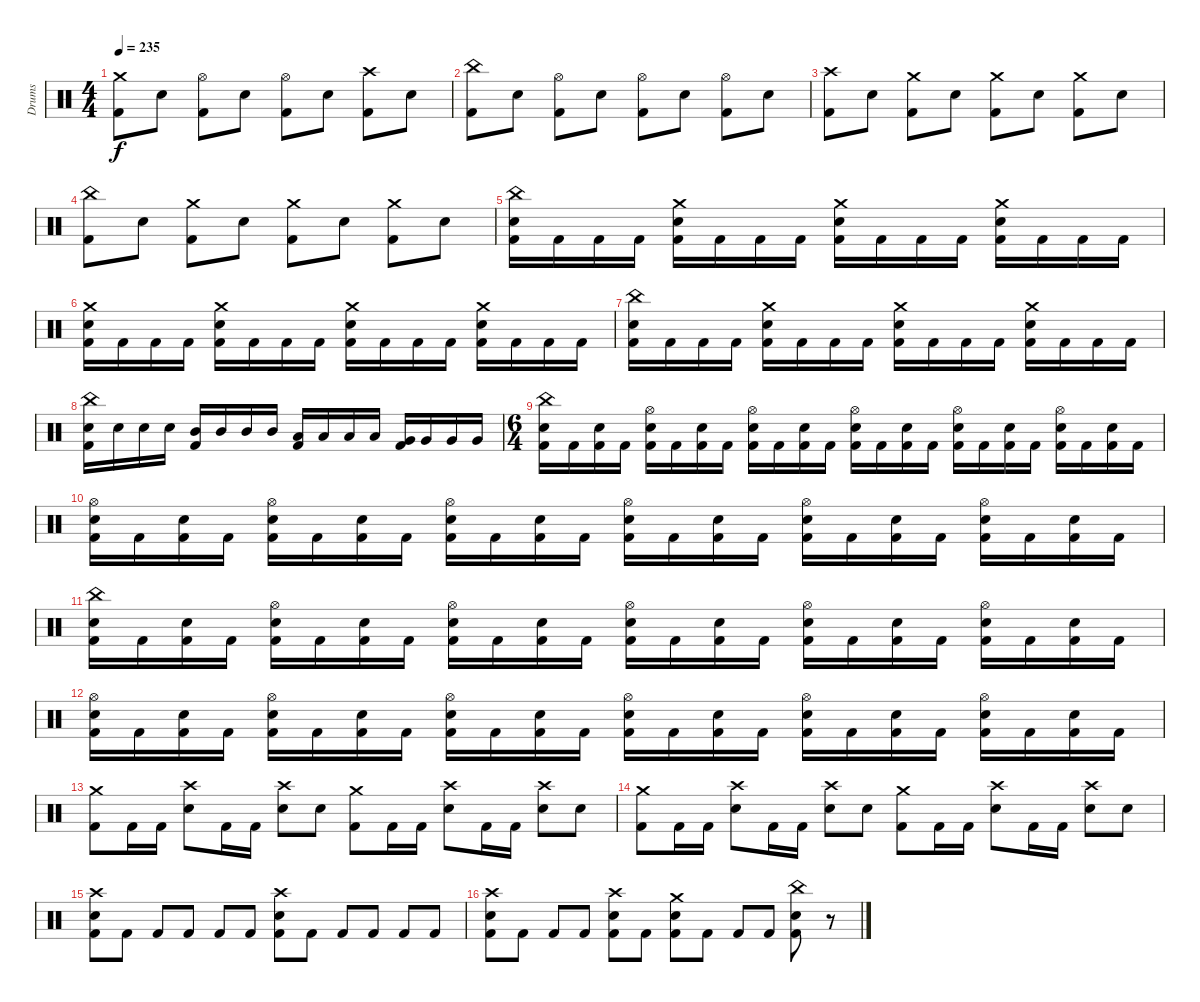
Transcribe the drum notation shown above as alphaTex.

\track ("Drums" "Drums") {instrument percussion}
\staff {score}
\articulation defaults
\ts (4 4)
\tempo 235
\clef neutral
\ks c
("Crash medium (hit)" "Kick (hit) 2").8{dy f} "Electric Snare (hit)".8 ("Hi-Hat (open)" "Kick (hit) 2").8 "Electric Snare (hit)".8 ("Hi-Hat (open)" "Kick (hit) 2").8 "Electric Snare (hit)".8 ("Crash high (hit)" "Kick (hit) 2").8 "Electric Snare (hit)".8 |
("China (hit)" "Kick (hit) 2").8 "Electric Snare (hit)".8 ("Hi-Hat (open)" "Kick (hit) 2").8 "Electric Snare (hit)".8 ("Hi-Hat (open)" "Kick (hit) 2").8 "Electric Snare (hit)".8 ("Hi-Hat (open)" "Kick (hit) 2").8 "Electric Snare (hit)".8 |
("Crash high (hit)" "Kick (hit) 2").8 "Electric Snare (hit)".8 ("Crash medium (hit)" "Kick (hit) 2").8 "Electric Snare (hit)".8 ("Crash medium (hit)" "Kick (hit) 2").8 "Electric Snare (hit)".8 ("Crash medium (hit)" "Kick (hit) 2").8 "Electric Snare (hit)".8 |
("China (hit)" "Kick (hit) 2").8 "Electric Snare (hit)".8 ("Crash medium (hit)" "Kick (hit) 2").8 "Electric Snare (hit)".8 ("Crash medium (hit)" "Kick (hit) 2").8 "Electric Snare (hit)".8 ("Crash medium (hit)" "Kick (hit) 2").8 "Electric Snare (hit)".8 |
("China (hit)" "Electric Snare (hit)" "Kick (hit) 2").16 "Kick (hit) 2".16 "Kick (hit) 2".16 "Kick (hit) 2".16 ("Crash medium (hit)" "Electric Snare (hit)" "Kick (hit) 2").16 "Kick (hit) 2".16 "Kick (hit) 2".16 "Kick (hit) 2".16 ("Crash medium (hit)" "Electric Snare (hit)" "Kick (hit) 2").16 "Kick (hit) 2".16 "Kick (hit) 2".16 "Kick (hit) 2".16 ("Crash medium (hit)" "Electric Snare (hit)" "Kick (hit) 2").16 "Kick (hit) 2".16 "Kick (hit) 2".16 "Kick (hit) 2".16 |
("Crash medium (hit)" "Electric Snare (hit)" "Kick (hit) 2").16 "Kick (hit) 2".16 "Kick (hit) 2".16 "Kick (hit) 2".16 ("Crash medium (hit)" "Electric Snare (hit)" "Kick (hit) 2").16 "Kick (hit) 2".16 "Kick (hit) 2".16 "Kick (hit) 2".16 ("Crash medium (hit)" "Electric Snare (hit)" "Kick (hit) 2").16 "Kick (hit) 2".16 "Kick (hit) 2".16 "Kick (hit) 2".16 ("Crash medium (hit)" "Electric Snare (hit)" "Kick (hit) 2").16 "Kick (hit) 2".16 "Kick (hit) 2".16 "Kick (hit) 2".16 |
("China (hit)" "Electric Snare (hit)" "Kick (hit) 2").16 "Kick (hit) 2".16 "Kick (hit) 2".16 "Kick (hit) 2".16 ("Crash medium (hit)" "Electric Snare (hit)" "Kick (hit) 2").16 "Kick (hit) 2".16 "Kick (hit) 2".16 "Kick (hit) 2".16 ("Crash medium (hit)" "Electric Snare (hit)" "Kick (hit) 2").16 "Kick (hit) 2".16 "Kick (hit) 2".16 "Kick (hit) 2".16 ("Crash medium (hit)" "Electric Snare (hit)" "Kick (hit) 2").16 "Kick (hit) 2".16 "Kick (hit) 2".16 "Kick (hit) 2".16 |
("China (hit)" "Electric Snare (hit)" "Kick (hit) 2").16 "Electric Snare (hit)".16 "Electric Snare (hit)".16 "Electric Snare (hit)".16 ("Mid Tom (hit)" "Kick (hit) 2").16 "Mid Tom (hit)".16 "Mid Tom (hit)".16 "Mid Tom (hit)".16 ("Low Tom (hit)" "Kick (hit) 2").16 "Low Tom (hit)".16 "Low Tom (hit)".16 "Low Tom (hit)".16 ("Very Low Tom (hit)" "Kick (hit) 2").16 "Very Low Tom (hit)".16 "Very Low Tom (hit)".16 "Very Low Tom (hit)".16 |
\ts (6 4)
("China (hit)" "Electric Snare (hit)" "Kick (hit) 2").16 "Kick (hit) 2".16 ("Electric Snare (hit)" "Kick (hit) 2").16 "Kick (hit) 2".16 ("Hi-Hat (open)" "Electric Snare (hit)" "Kick (hit) 2").16 "Kick (hit) 2".16 ("Electric Snare (hit)" "Kick (hit) 2").16 "Kick (hit) 2".16 ("Hi-Hat (open)" "Electric Snare (hit)" "Kick (hit) 2").16 "Kick (hit) 2".16 ("Electric Snare (hit)" "Kick (hit) 2").16 "Kick (hit) 2".16 ("Hi-Hat (open)" "Electric Snare (hit)" "Kick (hit) 2").16 "Kick (hit) 2".16 ("Electric Snare (hit)" "Kick (hit) 2").16 "Kick (hit) 2".16 ("Hi-Hat (open)" "Electric Snare (hit)" "Kick (hit) 2").16 "Kick (hit) 2".16 ("Electric Snare (hit)" "Kick (hit) 2").16 "Kick (hit) 2".16 ("Hi-Hat (open)" "Electric Snare (hit)" "Kick (hit) 2").16 "Kick (hit) 2".16 ("Electric Snare (hit)" "Kick (hit) 2").16 "Kick (hit) 2".16 |
("Hi-Hat (open)" "Electric Snare (hit)" "Kick (hit) 2").16 "Kick (hit) 2".16 ("Electric Snare (hit)" "Kick (hit) 2").16 "Kick (hit) 2".16 ("Hi-Hat (open)" "Electric Snare (hit)" "Kick (hit) 2").16 "Kick (hit) 2".16 ("Electric Snare (hit)" "Kick (hit) 2").16 "Kick (hit) 2".16 ("Hi-Hat (open)" "Electric Snare (hit)" "Kick (hit) 2").16 "Kick (hit) 2".16 ("Electric Snare (hit)" "Kick (hit) 2").16 "Kick (hit) 2".16 ("Hi-Hat (open)" "Electric Snare (hit)" "Kick (hit) 2").16 "Kick (hit) 2".16 ("Electric Snare (hit)" "Kick (hit) 2").16 "Kick (hit) 2".16 ("Hi-Hat (open)" "Electric Snare (hit)" "Kick (hit) 2").16 "Kick (hit) 2".16 ("Electric Snare (hit)" "Kick (hit) 2").16 "Kick (hit) 2".16 ("Hi-Hat (open)" "Electric Snare (hit)" "Kick (hit) 2").16 "Kick (hit) 2".16 ("Electric Snare (hit)" "Kick (hit) 2").16 "Kick (hit) 2".16 |
("China (hit)" "Electric Snare (hit)" "Kick (hit) 2").16 "Kick (hit) 2".16 ("Electric Snare (hit)" "Kick (hit) 2").16 "Kick (hit) 2".16 ("Hi-Hat (open)" "Electric Snare (hit)" "Kick (hit) 2").16 "Kick (hit) 2".16 ("Electric Snare (hit)" "Kick (hit) 2").16 "Kick (hit) 2".16 ("Hi-Hat (open)" "Electric Snare (hit)" "Kick (hit) 2").16 "Kick (hit) 2".16 ("Electric Snare (hit)" "Kick (hit) 2").16 "Kick (hit) 2".16 ("Hi-Hat (open)" "Electric Snare (hit)" "Kick (hit) 2").16 "Kick (hit) 2".16 ("Electric Snare (hit)" "Kick (hit) 2").16 "Kick (hit) 2".16 ("Hi-Hat (open)" "Electric Snare (hit)" "Kick (hit) 2").16 "Kick (hit) 2".16 ("Electric Snare (hit)" "Kick (hit) 2").16 "Kick (hit) 2".16 ("Hi-Hat (open)" "Electric Snare (hit)" "Kick (hit) 2").16 "Kick (hit) 2".16 ("Electric Snare (hit)" "Kick (hit) 2").16 "Kick (hit) 2".16 |
("Hi-Hat (open)" "Electric Snare (hit)" "Kick (hit) 2").16 "Kick (hit) 2".16 ("Electric Snare (hit)" "Kick (hit) 2").16 "Kick (hit) 2".16 ("Hi-Hat (open)" "Electric Snare (hit)" "Kick (hit) 2").16 "Kick (hit) 2".16 ("Electric Snare (hit)" "Kick (hit) 2").16 "Kick (hit) 2".16 ("Hi-Hat (open)" "Electric Snare (hit)" "Kick (hit) 2").16 "Kick (hit) 2".16 ("Electric Snare (hit)" "Kick (hit) 2").16 "Kick (hit) 2".16 ("Hi-Hat (open)" "Electric Snare (hit)" "Kick (hit) 2").16 "Kick (hit) 2".16 ("Electric Snare (hit)" "Kick (hit) 2").16 "Kick (hit) 2".16 ("Hi-Hat (open)" "Electric Snare (hit)" "Kick (hit) 2").16 "Kick (hit) 2".16 ("Electric Snare (hit)" "Kick (hit) 2").16 "Kick (hit) 2".16 ("Hi-Hat (open)" "Electric Snare (hit)" "Kick (hit) 2").16 "Kick (hit) 2".16 ("Electric Snare (hit)" "Kick (hit) 2").16 "Kick (hit) 2".16 |
("Crash medium (hit)" "Kick (hit) 2").8 "Kick (hit) 2".16 "Kick (hit) 2".16 ("Crash high (hit)" "Electric Snare (hit)").8 "Kick (hit) 2".16 "Kick (hit) 2".16 ("Crash high (hit)" "Electric Snare (hit)").8 "Electric Snare (hit)".8 ("Crash medium (hit)" "Kick (hit) 2").8 "Kick (hit) 2".16 "Kick (hit) 2".16 ("Crash high (hit)" "Electric Snare (hit)").8 "Kick (hit) 2".16 "Kick (hit) 2".16 ("Crash high (hit)" "Electric Snare (hit)").8 "Electric Snare (hit)".8 |
("Crash medium (hit)" "Kick (hit) 2").8 "Kick (hit) 2".16 "Kick (hit) 2".16 ("Crash high (hit)" "Electric Snare (hit)").8 "Kick (hit) 2".16 "Kick (hit) 2".16 ("Crash high (hit)" "Electric Snare (hit)").8 "Electric Snare (hit)".8 ("Crash medium (hit)" "Kick (hit) 2").8 "Kick (hit) 2".16 "Kick (hit) 2".16 ("Crash high (hit)" "Electric Snare (hit)").8 "Kick (hit) 2".16 "Kick (hit) 2".16 ("Crash high (hit)" "Electric Snare (hit)").8 "Electric Snare (hit)".8 |
("Crash high (hit)" "Electric Snare (hit)" "Kick (hit) 2").8 "Kick (hit) 2".8 "Kick (hit) 2".8 "Kick (hit) 2".8 "Kick (hit) 2".8 "Kick (hit) 2".8 ("Crash high (hit)" "Electric Snare (hit)" "Kick (hit) 2").8 "Kick (hit) 2".8 "Kick (hit) 2".8 "Kick (hit) 2".8 "Kick (hit) 2".8 "Kick (hit) 2".8 |
("Crash high (hit)" "Electric Snare (hit)" "Kick (hit) 2").8 "Kick (hit) 2".8 "Kick (hit) 2".8 "Kick (hit) 2".8 ("Crash high (hit)" "Electric Snare (hit)" "Kick (hit) 2").8 "Kick (hit) 2".8 ("Crash medium (hit)" "Electric Snare (hit)" "Kick (hit) 2").8 "Kick (hit) 2".8 "Kick (hit) 2".8 "Kick (hit) 2".8 ("China (hit)" "Electric Snare (hit)" "Kick (hit) 2").8 r.8
